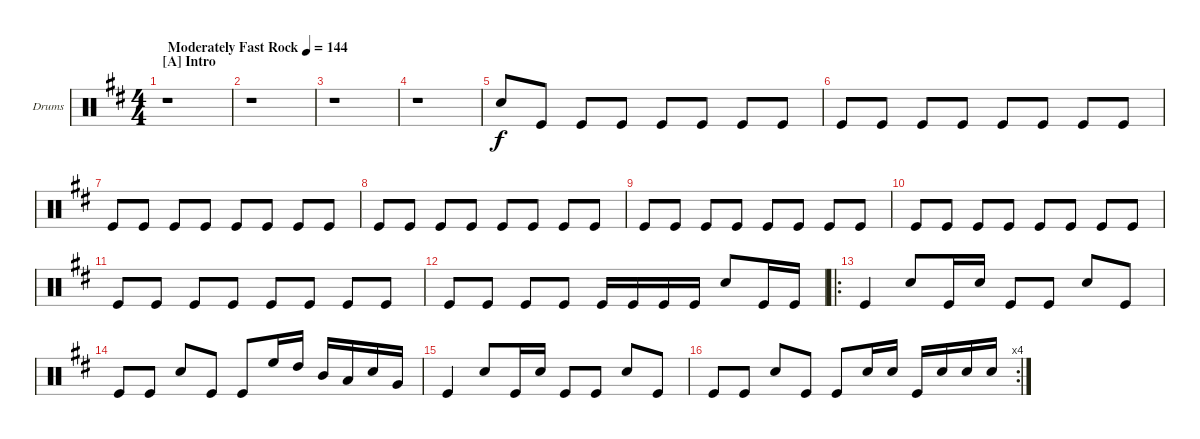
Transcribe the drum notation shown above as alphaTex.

\defaultSystemsLayout 4
\bracketExtendMode groupsimilarinstruments
\firstSystemTrackNameOrientation horizontal
\otherSystemsTrackNameOrientation horizontal
\track ("Drumkit" "Drums") {instrument percussion}
\staff {score}
\articulation defaults
\ts (4 4)
\section ("A" "Intro")
\tempo (144 "Moderately Fast Rock")
\clef neutral
\scale
1.08071
\ks d
r.1{dy f} |
\scale
0.919294 r.1 |
\scale
1.05044 r.1 |
\scale
0.949559 r.1 |
\scale
1.05044 "Snare (hit) 2".8 "Kick (hit)".8 "Kick (hit)".8 "Kick (hit)".8 "Kick (hit)".8 "Kick (hit)".8 "Kick (hit)".8 "Kick (hit)".8 |
\scale
0.949559 "Kick (hit)".8 "Kick (hit)".8 "Kick (hit)".8 "Kick (hit)".8 "Kick (hit)".8 "Kick (hit)".8 "Kick (hit)".8 "Kick (hit)".8 |
\scale
1.05044 "Kick (hit)".8 "Kick (hit)".8 "Kick (hit)".8 "Kick (hit)".8 "Kick (hit)".8 "Kick (hit)".8 "Kick (hit)".8 "Kick (hit)".8 |
\scale
0.949559 "Kick (hit)".8 "Kick (hit)".8 "Kick (hit)".8 "Kick (hit)".8 "Kick (hit)".8 "Kick (hit)".8 "Kick (hit)".8 "Kick (hit)".8 |
\scale
1.05044 "Kick (hit)".8 "Kick (hit)".8 "Kick (hit)".8 "Kick (hit)".8 "Kick (hit)".8 "Kick (hit)".8 "Kick (hit)".8 "Kick (hit)".8 |
\scale
0.949559 "Kick (hit)".8 "Kick (hit)".8 "Kick (hit)".8 "Kick (hit)".8 "Kick (hit)".8 "Kick (hit)".8 "Kick (hit)".8 "Kick (hit)".8 |
\scale
1.05044 "Kick (hit)".8 "Kick (hit)".8 "Kick (hit)".8 "Kick (hit)".8 "Kick (hit)".8 "Kick (hit)".8 "Kick (hit)".8 "Kick (hit)".8 |
\scale
0.949559 "Kick (hit)".8 "Kick (hit)".8 "Kick (hit)".8 "Kick (hit)".8 "Kick (hit)".16 "Kick (hit)".16 "Kick (hit)".16 "Kick (hit)".16 "Snare (hit) 2".8 "Kick (hit)".16 "Kick (hit)".16 |
\ro
\scale
1.05044 "Kick (hit)".4 "Snare (hit) 2".8 "Kick (hit)".16 "Snare (hit) 2".16 "Kick (hit)".8 "Kick (hit)".8 "Snare (hit) 2".8 "Kick (hit)".8 |
\scale
0.949559 "Kick (hit)".8 "Kick (hit)".8 "Snare (hit) 2".8 "Kick (hit)".8 "Kick (hit)".8 "High Floor Tom (hit)".16 "High Tom (hit)".16 "Mid Tom (hit)".16 "Low Tom (hit)".16 "Snare (hit) 2".16 "Very Low Tom (hit)".16 |
\scale
1.05044 "Kick (hit)".4 "Snare (hit) 2".8 "Kick (hit)".16 "Snare (hit) 2".16 "Kick (hit)".8 "Kick (hit)".8 "Snare (hit) 2".8 "Kick (hit)".8 |
\rc 4
\scale
0.949559 "Kick (hit)".8 "Kick (hit)".8 "Snare (hit) 2".8 "Kick (hit)".8 "Kick (hit)".8 "Snare (hit) 2".16 "Snare (hit) 2".16 "Kick (hit)".16 "Snare (hit) 2".16 "Snare (hit) 2".16 "Snare (hit) 2".16
